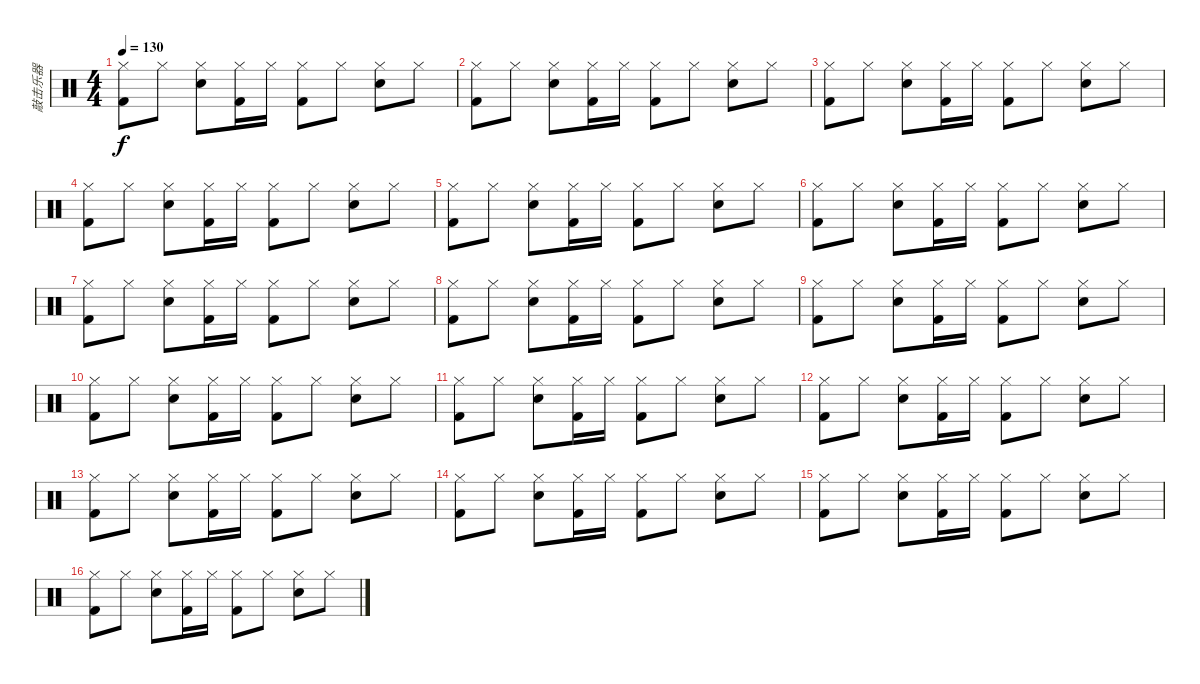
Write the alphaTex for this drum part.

\track ("敲击乐器" "敲击乐器") {instrument percussion}
\staff {score}
\articulation defaults
\ts (4 4)
\tempo 130
\clef neutral
\ks c
("Hi-Hat (closed)" "Kick (hit) 2").8{dy f} "Hi-Hat (closed)".8 ("Hi-Hat (closed)" "Snare (hit) 2").8 ("Hi-Hat (closed)" "Kick (hit) 2").16 "Hi-Hat (closed)".16 ("Hi-Hat (closed)" "Kick (hit) 2").8 "Hi-Hat (closed)".8 ("Hi-Hat (closed)" "Snare (hit) 2").8 "Hi-Hat (closed)".8 |
("Hi-Hat (closed)" "Kick (hit) 2").8 "Hi-Hat (closed)".8 ("Hi-Hat (closed)" "Snare (hit) 2").8 ("Hi-Hat (closed)" "Kick (hit) 2").16 "Hi-Hat (closed)".16 ("Hi-Hat (closed)" "Kick (hit) 2").8 "Hi-Hat (closed)".8 ("Hi-Hat (closed)" "Snare (hit) 2").8 "Hi-Hat (closed)".8 |
("Hi-Hat (closed)" "Kick (hit) 2").8 "Hi-Hat (closed)".8 ("Hi-Hat (closed)" "Snare (hit) 2").8 ("Hi-Hat (closed)" "Kick (hit) 2").16 "Hi-Hat (closed)".16 ("Hi-Hat (closed)" "Kick (hit) 2").8 "Hi-Hat (closed)".8 ("Hi-Hat (closed)" "Snare (hit) 2").8 "Hi-Hat (closed)".8 |
("Hi-Hat (closed)" "Kick (hit) 2").8 "Hi-Hat (closed)".8 ("Hi-Hat (closed)" "Snare (hit) 2").8 ("Hi-Hat (closed)" "Kick (hit) 2").16 "Hi-Hat (closed)".16 ("Hi-Hat (closed)" "Kick (hit) 2").8 "Hi-Hat (closed)".8 ("Hi-Hat (closed)" "Snare (hit) 2").8 "Hi-Hat (closed)".8 |
("Hi-Hat (closed)" "Kick (hit) 2").8 "Hi-Hat (closed)".8 ("Hi-Hat (closed)" "Snare (hit) 2").8 ("Hi-Hat (closed)" "Kick (hit) 2").16 "Hi-Hat (closed)".16 ("Hi-Hat (closed)" "Kick (hit) 2").8 "Hi-Hat (closed)".8 ("Hi-Hat (closed)" "Snare (hit) 2").8 "Hi-Hat (closed)".8 |
("Hi-Hat (closed)" "Kick (hit) 2").8 "Hi-Hat (closed)".8 ("Hi-Hat (closed)" "Snare (hit) 2").8 ("Hi-Hat (closed)" "Kick (hit) 2").16 "Hi-Hat (closed)".16 ("Hi-Hat (closed)" "Kick (hit) 2").8 "Hi-Hat (closed)".8 ("Hi-Hat (closed)" "Snare (hit) 2").8 "Hi-Hat (closed)".8 |
("Hi-Hat (closed)" "Kick (hit) 2").8 "Hi-Hat (closed)".8 ("Hi-Hat (closed)" "Snare (hit) 2").8 ("Hi-Hat (closed)" "Kick (hit) 2").16 "Hi-Hat (closed)".16 ("Hi-Hat (closed)" "Kick (hit) 2").8 "Hi-Hat (closed)".8 ("Hi-Hat (closed)" "Snare (hit) 2").8 "Hi-Hat (closed)".8 |
("Hi-Hat (closed)" "Kick (hit) 2").8 "Hi-Hat (closed)".8 ("Hi-Hat (closed)" "Snare (hit) 2").8 ("Hi-Hat (closed)" "Kick (hit) 2").16 "Hi-Hat (closed)".16 ("Hi-Hat (closed)" "Kick (hit) 2").8 "Hi-Hat (closed)".8 ("Hi-Hat (closed)" "Snare (hit) 2").8 "Hi-Hat (closed)".8 |
("Hi-Hat (closed)" "Kick (hit) 2").8 "Hi-Hat (closed)".8 ("Hi-Hat (closed)" "Snare (hit) 2").8 ("Hi-Hat (closed)" "Kick (hit) 2").16 "Hi-Hat (closed)".16 ("Hi-Hat (closed)" "Kick (hit) 2").8 "Hi-Hat (closed)".8 ("Hi-Hat (closed)" "Snare (hit) 2").8 "Hi-Hat (closed)".8 |
("Hi-Hat (closed)" "Kick (hit) 2").8 "Hi-Hat (closed)".8 ("Hi-Hat (closed)" "Snare (hit) 2").8 ("Hi-Hat (closed)" "Kick (hit) 2").16 "Hi-Hat (closed)".16 ("Hi-Hat (closed)" "Kick (hit) 2").8 "Hi-Hat (closed)".8 ("Hi-Hat (closed)" "Snare (hit) 2").8 "Hi-Hat (closed)".8 |
("Hi-Hat (closed)" "Kick (hit) 2").8 "Hi-Hat (closed)".8 ("Hi-Hat (closed)" "Snare (hit) 2").8 ("Hi-Hat (closed)" "Kick (hit) 2").16 "Hi-Hat (closed)".16 ("Hi-Hat (closed)" "Kick (hit) 2").8 "Hi-Hat (closed)".8 ("Hi-Hat (closed)" "Snare (hit) 2").8 "Hi-Hat (closed)".8 |
("Hi-Hat (closed)" "Kick (hit) 2").8 "Hi-Hat (closed)".8 ("Hi-Hat (closed)" "Snare (hit) 2").8 ("Hi-Hat (closed)" "Kick (hit) 2").16 "Hi-Hat (closed)".16 ("Hi-Hat (closed)" "Kick (hit) 2").8 "Hi-Hat (closed)".8 ("Hi-Hat (closed)" "Snare (hit) 2").8 "Hi-Hat (closed)".8 |
("Hi-Hat (closed)" "Kick (hit) 2").8 "Hi-Hat (closed)".8 ("Hi-Hat (closed)" "Snare (hit) 2").8 ("Hi-Hat (closed)" "Kick (hit) 2").16 "Hi-Hat (closed)".16 ("Hi-Hat (closed)" "Kick (hit) 2").8 "Hi-Hat (closed)".8 ("Hi-Hat (closed)" "Snare (hit) 2").8 "Hi-Hat (closed)".8 |
("Hi-Hat (closed)" "Kick (hit) 2").8 "Hi-Hat (closed)".8 ("Hi-Hat (closed)" "Snare (hit) 2").8 ("Hi-Hat (closed)" "Kick (hit) 2").16 "Hi-Hat (closed)".16 ("Hi-Hat (closed)" "Kick (hit) 2").8 "Hi-Hat (closed)".8 ("Hi-Hat (closed)" "Snare (hit) 2").8 "Hi-Hat (closed)".8 |
("Hi-Hat (closed)" "Kick (hit) 2").8 "Hi-Hat (closed)".8 ("Hi-Hat (closed)" "Snare (hit) 2").8 ("Hi-Hat (closed)" "Kick (hit) 2").16 "Hi-Hat (closed)".16 ("Hi-Hat (closed)" "Kick (hit) 2").8 "Hi-Hat (closed)".8 ("Hi-Hat (closed)" "Snare (hit) 2").8 "Hi-Hat (closed)".8 |
("Hi-Hat (closed)" "Kick (hit) 2").8 "Hi-Hat (closed)".8 ("Hi-Hat (closed)" "Snare (hit) 2").8 ("Hi-Hat (closed)" "Kick (hit) 2").16 "Hi-Hat (closed)".16 ("Hi-Hat (closed)" "Kick (hit) 2").8 "Hi-Hat (closed)".8 ("Hi-Hat (closed)" "Snare (hit) 2").8 "Hi-Hat (closed)".8
